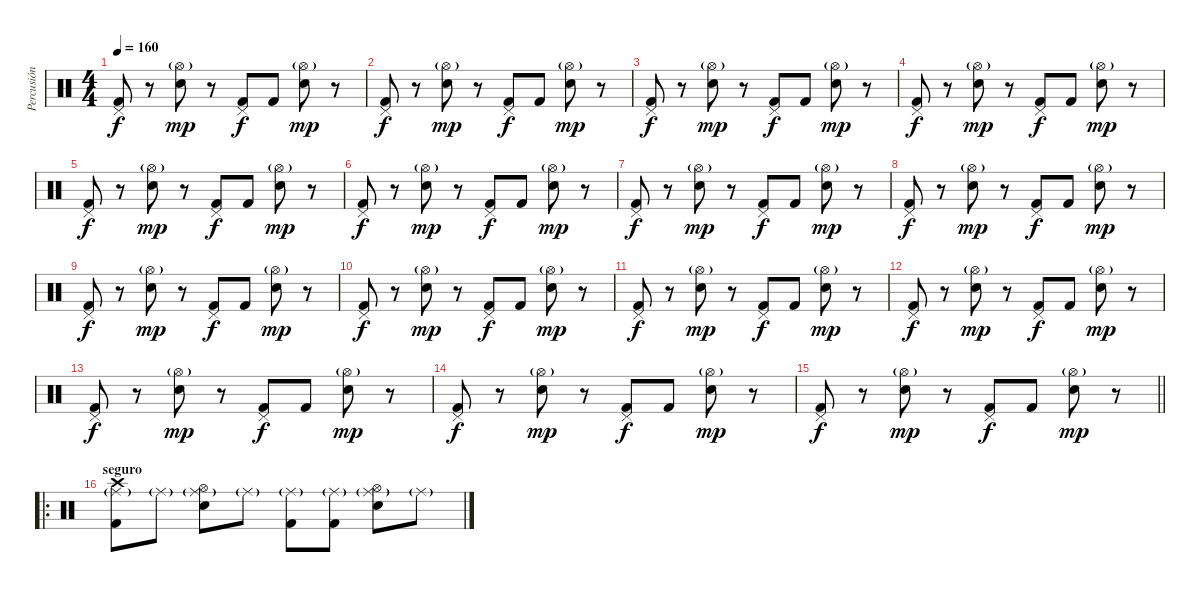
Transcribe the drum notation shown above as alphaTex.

\track ("Percusión" "Percusión") {instrument percussion}
\staff {score}
\articulation defaults
\ts (4 4)
\tempo 160
\clef neutral
\ks c
("Pedal Hi-Hat (hit)" "Kick (hit) 2").8{dy f} r.8 ("Hi-Hat (open)"{g} "Electric Snare (hit)").8{dy mp} r.8 ("Pedal Hi-Hat (hit)" "Kick (hit) 2").8{dy f} "Kick (hit) 2".8 ("Hi-Hat (open)"{g} "Electric Snare (hit)").8{dy mp} r.8 |
("Pedal Hi-Hat (hit)" "Kick (hit) 2").8{dy f} r.8 ("Hi-Hat (open)"{g} "Electric Snare (hit)").8{dy mp} r.8 ("Pedal Hi-Hat (hit)" "Kick (hit) 2").8{dy f} "Kick (hit) 2".8 ("Hi-Hat (open)"{g} "Electric Snare (hit)").8{dy mp} r.8 |
("Pedal Hi-Hat (hit)" "Kick (hit) 2").8{dy f} r.8 ("Hi-Hat (open)"{g} "Electric Snare (hit)").8{dy mp} r.8 ("Pedal Hi-Hat (hit)" "Kick (hit) 2").8{dy f} "Kick (hit) 2".8 ("Hi-Hat (open)"{g} "Electric Snare (hit)").8{dy mp} r.8 |
("Pedal Hi-Hat (hit)" "Kick (hit) 2").8{dy f} r.8 ("Hi-Hat (open)"{g} "Electric Snare (hit)").8{dy mp} r.8 ("Pedal Hi-Hat (hit)" "Kick (hit) 2").8{dy f} "Kick (hit) 2".8 ("Hi-Hat (open)"{g} "Electric Snare (hit)").8{dy mp} r.8 |
("Pedal Hi-Hat (hit)" "Kick (hit) 2").8{dy f} r.8 ("Hi-Hat (open)"{g} "Electric Snare (hit)").8{dy mp} r.8 ("Pedal Hi-Hat (hit)" "Kick (hit) 2").8{dy f} "Kick (hit) 2".8 ("Hi-Hat (open)"{g} "Electric Snare (hit)").8{dy mp} r.8 |
("Pedal Hi-Hat (hit)" "Kick (hit) 2").8{dy f} r.8 ("Hi-Hat (open)"{g} "Electric Snare (hit)").8{dy mp} r.8 ("Pedal Hi-Hat (hit)" "Kick (hit) 2").8{dy f} "Kick (hit) 2".8 ("Hi-Hat (open)"{g} "Electric Snare (hit)").8{dy mp} r.8 |
("Pedal Hi-Hat (hit)" "Kick (hit) 2").8{dy f} r.8 ("Hi-Hat (open)"{g} "Electric Snare (hit)").8{dy mp} r.8 ("Pedal Hi-Hat (hit)" "Kick (hit) 2").8{dy f} "Kick (hit) 2".8 ("Hi-Hat (open)"{g} "Electric Snare (hit)").8{dy mp} r.8 |
("Pedal Hi-Hat (hit)" "Kick (hit) 2").8{dy f} r.8 ("Hi-Hat (open)"{g} "Electric Snare (hit)").8{dy mp} r.8 ("Pedal Hi-Hat (hit)" "Kick (hit) 2").8{dy f} "Kick (hit) 2".8 ("Hi-Hat (open)"{g} "Electric Snare (hit)").8{dy mp} r.8 |
("Pedal Hi-Hat (hit)" "Kick (hit) 2").8{dy f} r.8 ("Hi-Hat (open)"{g} "Electric Snare (hit)").8{dy mp} r.8 ("Pedal Hi-Hat (hit)" "Kick (hit) 2").8{dy f} "Kick (hit) 2".8 ("Hi-Hat (open)"{g} "Electric Snare (hit)").8{dy mp} r.8 |
("Pedal Hi-Hat (hit)" "Kick (hit) 2").8{dy f} r.8 ("Hi-Hat (open)"{g} "Electric Snare (hit)").8{dy mp} r.8 ("Pedal Hi-Hat (hit)" "Kick (hit) 2").8{dy f} "Kick (hit) 2".8 ("Hi-Hat (open)"{g} "Electric Snare (hit)").8{dy mp} r.8 |
("Pedal Hi-Hat (hit)" "Kick (hit) 2").8{dy f} r.8 ("Hi-Hat (open)"{g} "Electric Snare (hit)").8{dy mp} r.8 ("Pedal Hi-Hat (hit)" "Kick (hit) 2").8{dy f} "Kick (hit) 2".8 ("Hi-Hat (open)"{g} "Electric Snare (hit)").8{dy mp} r.8 |
("Pedal Hi-Hat (hit)" "Kick (hit) 2").8{dy f} r.8 ("Hi-Hat (open)"{g} "Electric Snare (hit)").8{dy mp} r.8 ("Pedal Hi-Hat (hit)" "Kick (hit) 2").8{dy f} "Kick (hit) 2".8 ("Hi-Hat (open)"{g} "Electric Snare (hit)").8{dy mp} r.8 |
("Pedal Hi-Hat (hit)" "Kick (hit) 2").8{dy f} r.8 ("Hi-Hat (open)"{g} "Electric Snare (hit)").8{dy mp} r.8 ("Pedal Hi-Hat (hit)" "Kick (hit) 2").8{dy f} "Kick (hit) 2".8 ("Hi-Hat (open)"{g} "Electric Snare (hit)").8{dy mp} r.8 |
("Pedal Hi-Hat (hit)" "Kick (hit) 2").8{dy f} r.8 ("Hi-Hat (open)"{g} "Electric Snare (hit)").8{dy mp} r.8 ("Pedal Hi-Hat (hit)" "Kick (hit) 2").8{dy f} "Kick (hit) 2".8 ("Hi-Hat (open)"{g} "Electric Snare (hit)").8{dy mp} r.8 |
\barLineRight lightlight
("Pedal Hi-Hat (hit)" "Kick (hit) 2").8{dy f} r.8 ("Hi-Hat (open)"{g} "Electric Snare (hit)").8{dy mp} r.8 ("Pedal Hi-Hat (hit)" "Kick (hit) 2").8{dy f} "Kick (hit) 2".8 ("Hi-Hat (open)"{g} "Electric Snare (hit)").8{dy mp} r.8 |
\ro
\section ("" "seguro")
("Crash high (hit)" "Ride (middle)"{g} "Kick (hit) 2").8 "Ride (middle)"{g}.8 ("Hi-Hat (open)" "Ride (middle)"{g} "Electric Snare (hit)").8 "Ride (middle)"{g}.8 ("Ride (middle)"{g} "Kick (hit) 2").8 ("Ride (middle)"{g} "Kick (hit) 2").8 ("Hi-Hat (open)" "Ride (middle)"{g} "Electric Snare (hit)").8 "Ride (middle)"{g}.8
